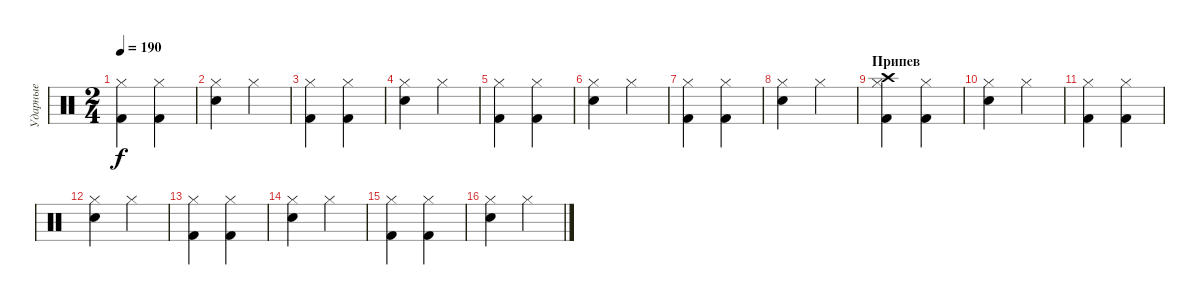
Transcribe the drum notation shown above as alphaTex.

\track ("Ударные" "Ударные") {instrument percussion}
\staff {score}
\articulation defaults
\ts (2 4)
\tempo 190
\clef neutral
\ks c
("Hi-Hat (closed)" "Kick (hit) 2").4{dy f} ("Hi-Hat (closed)" "Kick (hit) 2").4 |
("Hi-Hat (closed)" "Snare (hit) 2").4 "Hi-Hat (closed)".4 |
("Hi-Hat (closed)" "Kick (hit) 2").4 ("Hi-Hat (closed)" "Kick (hit) 2").4 |
("Hi-Hat (closed)" "Snare (hit) 2").4 "Hi-Hat (closed)".4 |
("Hi-Hat (closed)" "Kick (hit) 2").4 ("Hi-Hat (closed)" "Kick (hit) 2").4 |
("Hi-Hat (closed)" "Snare (hit) 2").4 "Hi-Hat (closed)".4 |
("Hi-Hat (closed)" "Kick (hit) 2").4 ("Hi-Hat (closed)" "Kick (hit) 2").4 |
("Hi-Hat (closed)" "Snare (hit) 2").4 "Hi-Hat (closed)".4 |
\section ("" "Припев")
("Hi-Hat (closed)" "Kick (hit) 2" "Crash high (hit)").4 ("Hi-Hat (closed)" "Kick (hit) 2").4 |
("Hi-Hat (closed)" "Snare (hit) 2").4 "Hi-Hat (closed)".4 |
("Hi-Hat (closed)" "Kick (hit) 2").4 ("Hi-Hat (closed)" "Kick (hit) 2").4 |
("Hi-Hat (closed)" "Snare (hit) 2").4 "Hi-Hat (closed)".4 |
("Hi-Hat (closed)" "Kick (hit) 2").4 ("Hi-Hat (closed)" "Kick (hit) 2").4 |
("Hi-Hat (closed)" "Snare (hit) 2").4 "Hi-Hat (closed)".4 |
("Hi-Hat (closed)" "Kick (hit) 2").4 ("Hi-Hat (closed)" "Kick (hit) 2").4 |
("Hi-Hat (closed)" "Snare (hit) 2").4 "Hi-Hat (closed)".4
